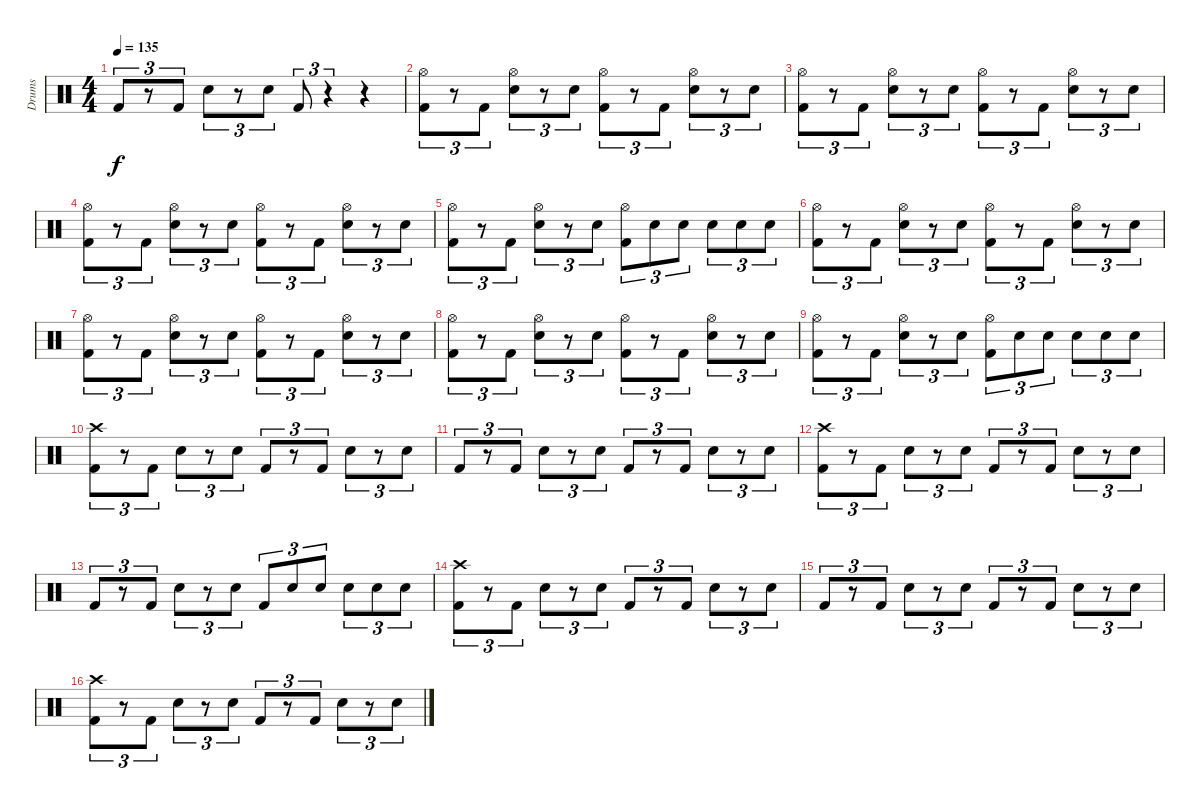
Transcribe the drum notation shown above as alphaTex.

\track ("Drums" "Drums") {instrument percussion}
\staff {score}
\articulation defaults
\ts (4 4)
\tempo 135
\clef neutral
\ks c "Kick (hit) 2".8{tu (3 2) dy f}
r.8{tu (3 2)} "Kick (hit) 2".8{tu (3 2)} "Snare (hit) 2".8{tu (3 2)} r.8{tu (3 2)} "Snare (hit) 2".8{tu (3 2)} "Kick (hit) 2".8{tu (3 2)} r.4{tu (3 2)} r.4 |
("Kick (hit) 2" "Hi-Hat (open)").8{tu (3 2)} r.8{tu (3 2)} "Kick (hit) 2".8{tu (3 2)} ("Snare (hit) 2" "Hi-Hat (open)").8{tu (3 2)} r.8{tu (3 2)} "Snare (hit) 2".8{tu (3 2)} ("Kick (hit) 2" "Hi-Hat (open)").8{tu (3 2)} r.8{tu (3 2)} "Kick (hit) 2".8{tu (3 2)} ("Snare (hit) 2" "Hi-Hat (open)").8{tu (3 2)} r.8{tu (3 2)} "Snare (hit) 2".8{tu (3 2)} |
("Kick (hit) 2" "Hi-Hat (open)").8{tu (3 2)} r.8{tu (3 2)} "Kick (hit) 2".8{tu (3 2)} ("Snare (hit) 2" "Hi-Hat (open)").8{tu (3 2)} r.8{tu (3 2)} "Snare (hit) 2".8{tu (3 2)} ("Kick (hit) 2" "Hi-Hat (open)").8{tu (3 2)} r.8{tu (3 2)} "Kick (hit) 2".8{tu (3 2)} ("Snare (hit) 2" "Hi-Hat (open)").8{tu (3 2)} r.8{tu (3 2)} "Snare (hit) 2".8{tu (3 2)} |
("Kick (hit) 2" "Hi-Hat (open)").8{tu (3 2)} r.8{tu (3 2)} "Kick (hit) 2".8{tu (3 2)} ("Snare (hit) 2" "Hi-Hat (open)").8{tu (3 2)} r.8{tu (3 2)} "Snare (hit) 2".8{tu (3 2)} ("Kick (hit) 2" "Hi-Hat (open)").8{tu (3 2)} r.8{tu (3 2)} "Kick (hit) 2".8{tu (3 2)} ("Snare (hit) 2" "Hi-Hat (open)").8{tu (3 2)} r.8{tu (3 2)} "Snare (hit) 2".8{tu (3 2)} |
("Kick (hit) 2" "Hi-Hat (open)").8{tu (3 2)} r.8{tu (3 2)} "Kick (hit) 2".8{tu (3 2)} ("Snare (hit) 2" "Hi-Hat (open)").8{tu (3 2)} r.8{tu (3 2)} "Snare (hit) 2".8{tu (3 2)} ("Kick (hit) 2" "Hi-Hat (open)").8{tu (3 2)} "Snare (hit) 2".8{tu (3 2)} "Snare (hit) 2".8{tu (3 2)} "Snare (hit) 2".8{tu (3 2)} "Snare (hit) 2".8{tu (3 2)} "Snare (hit) 2".8{tu (3 2)} |
("Kick (hit) 2" "Hi-Hat (open)").8{tu (3 2)} r.8{tu (3 2)} "Kick (hit) 2".8{tu (3 2)} ("Snare (hit) 2" "Hi-Hat (open)").8{tu (3 2)} r.8{tu (3 2)} "Snare (hit) 2".8{tu (3 2)} ("Kick (hit) 2" "Hi-Hat (open)").8{tu (3 2)} r.8{tu (3 2)} "Kick (hit) 2".8{tu (3 2)} ("Snare (hit) 2" "Hi-Hat (open)").8{tu (3 2)} r.8{tu (3 2)} "Snare (hit) 2".8{tu (3 2)} |
("Kick (hit) 2" "Hi-Hat (open)").8{tu (3 2)} r.8{tu (3 2)} "Kick (hit) 2".8{tu (3 2)} ("Snare (hit) 2" "Hi-Hat (open)").8{tu (3 2)} r.8{tu (3 2)} "Snare (hit) 2".8{tu (3 2)} ("Kick (hit) 2" "Hi-Hat (open)").8{tu (3 2)} r.8{tu (3 2)} "Kick (hit) 2".8{tu (3 2)} ("Snare (hit) 2" "Hi-Hat (open)").8{tu (3 2)} r.8{tu (3 2)} "Snare (hit) 2".8{tu (3 2)} |
("Kick (hit) 2" "Hi-Hat (open)").8{tu (3 2)} r.8{tu (3 2)} "Kick (hit) 2".8{tu (3 2)} ("Snare (hit) 2" "Hi-Hat (open)").8{tu (3 2)} r.8{tu (3 2)} "Snare (hit) 2".8{tu (3 2)} ("Kick (hit) 2" "Hi-Hat (open)").8{tu (3 2)} r.8{tu (3 2)} "Kick (hit) 2".8{tu (3 2)} ("Snare (hit) 2" "Hi-Hat (open)").8{tu (3 2)} r.8{tu (3 2)} "Snare (hit) 2".8{tu (3 2)} |
("Kick (hit) 2" "Hi-Hat (open)").8{tu (3 2)} r.8{tu (3 2)} "Kick (hit) 2".8{tu (3 2)} ("Snare (hit) 2" "Hi-Hat (open)").8{tu (3 2)} r.8{tu (3 2)} "Snare (hit) 2".8{tu (3 2)} ("Kick (hit) 2" "Hi-Hat (open)").8{tu (3 2)} "Snare (hit) 2".8{tu (3 2)} "Snare (hit) 2".8{tu (3 2)} "Snare (hit) 2".8{tu (3 2)} "Snare (hit) 2".8{tu (3 2)} "Snare (hit) 2".8{tu (3 2)} |
("Kick (hit) 2" "Crash high (hit)").8{tu (3 2)} r.8{tu (3 2)} "Kick (hit) 2".8{tu (3 2)} "Snare (hit) 2".8{tu (3 2)} r.8{tu (3 2)} "Snare (hit) 2".8{tu (3 2)} "Kick (hit) 2".8{tu (3 2)} r.8{tu (3 2)} "Kick (hit) 2".8{tu (3 2)} "Snare (hit) 2".8{tu (3 2)} r.8{tu (3 2)} "Snare (hit) 2".8{tu (3 2)} |
"Kick (hit) 2".8{tu (3 2)} r.8{tu (3 2)} "Kick (hit) 2".8{tu (3 2)} "Snare (hit) 2".8{tu (3 2)} r.8{tu (3 2)} "Snare (hit) 2".8{tu (3 2)} "Kick (hit) 2".8{tu (3 2)} r.8{tu (3 2)} "Kick (hit) 2".8{tu (3 2)} "Snare (hit) 2".8{tu (3 2)} r.8{tu (3 2)} "Snare (hit) 2".8{tu (3 2)} |
("Kick (hit) 2" "Crash high (hit)").8{tu (3 2)} r.8{tu (3 2)} "Kick (hit) 2".8{tu (3 2)} "Snare (hit) 2".8{tu (3 2)} r.8{tu (3 2)} "Snare (hit) 2".8{tu (3 2)} "Kick (hit) 2".8{tu (3 2)} r.8{tu (3 2)} "Kick (hit) 2".8{tu (3 2)} "Snare (hit) 2".8{tu (3 2)} r.8{tu (3 2)} "Snare (hit) 2".8{tu (3 2)} |
"Kick (hit) 2".8{tu (3 2)} r.8{tu (3 2)} "Kick (hit) 2".8{tu (3 2)} "Snare (hit) 2".8{tu (3 2)} r.8{tu (3 2)} "Snare (hit) 2".8{tu (3 2)} "Kick (hit) 2".8{tu (3 2)} "Snare (hit) 2".8{tu (3 2)} "Snare (hit) 2".8{tu (3 2)} "Snare (hit) 2".8{tu (3 2)} "Snare (hit) 2".8{tu (3 2)} "Snare (hit) 2".8{tu (3 2)} |
("Kick (hit) 2" "Crash high (hit)").8{tu (3 2)} r.8{tu (3 2)} "Kick (hit) 2".8{tu (3 2)} "Snare (hit) 2".8{tu (3 2)} r.8{tu (3 2)} "Snare (hit) 2".8{tu (3 2)} "Kick (hit) 2".8{tu (3 2)} r.8{tu (3 2)} "Kick (hit) 2".8{tu (3 2)} "Snare (hit) 2".8{tu (3 2)} r.8{tu (3 2)} "Snare (hit) 2".8{tu (3 2)} |
"Kick (hit) 2".8{tu (3 2)} r.8{tu (3 2)} "Kick (hit) 2".8{tu (3 2)} "Snare (hit) 2".8{tu (3 2)} r.8{tu (3 2)} "Snare (hit) 2".8{tu (3 2)} "Kick (hit) 2".8{tu (3 2)} r.8{tu (3 2)} "Kick (hit) 2".8{tu (3 2)} "Snare (hit) 2".8{tu (3 2)} r.8{tu (3 2)} "Snare (hit) 2".8{tu (3 2)} |
("Kick (hit) 2" "Crash high (hit)").8{tu (3 2)} r.8{tu (3 2)} "Kick (hit) 2".8{tu (3 2)} "Snare (hit) 2".8{tu (3 2)} r.8{tu (3 2)} "Snare (hit) 2".8{tu (3 2)} "Kick (hit) 2".8{tu (3 2)} r.8{tu (3 2)} "Kick (hit) 2".8{tu (3 2)} "Snare (hit) 2".8{tu (3 2)} r.8{tu (3 2)} "Snare (hit) 2".8{tu (3 2)}
